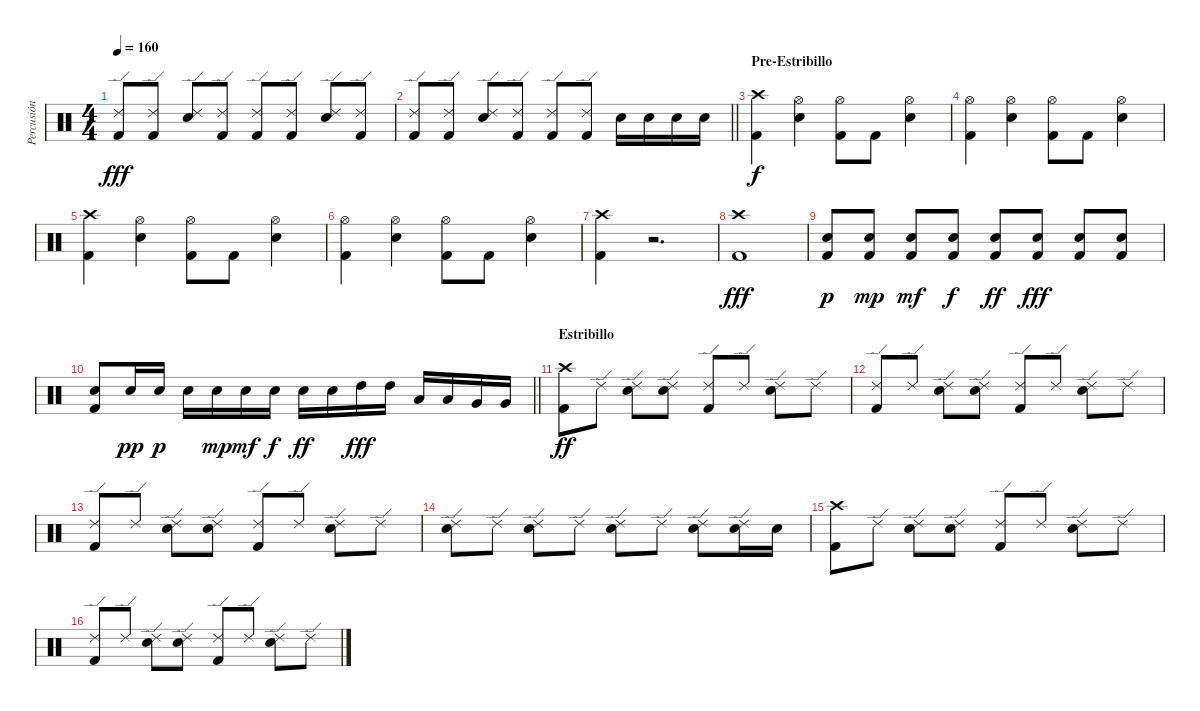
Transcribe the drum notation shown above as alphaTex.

\track ("Percusión" "Percusión") {instrument percussion}
\staff {score}
\articulation defaults
\ts (4 4)
\tempo 160
\clef neutral
\ks c
("Ride (edge) 2" "Kick (hit) 2").8{dy fff} ("Ride (edge) 2" "Kick (hit) 2").8 ("Ride (edge) 2" "Electric Snare (hit)").8 ("Ride (edge) 2" "Kick (hit) 2").8 ("Ride (edge) 2" "Kick (hit) 2").8 ("Ride (edge) 2" "Kick (hit) 2").8 ("Ride (edge) 2" "Electric Snare (hit)").8 ("Ride (edge) 2" "Kick (hit) 2").8 |
\barLineRight lightlight
("Ride (edge) 2" "Kick (hit) 2").8 ("Ride (edge) 2" "Kick (hit) 2").8 ("Ride (edge) 2" "Electric Snare (hit)").8 ("Ride (edge) 2" "Kick (hit) 2").8 ("Ride (edge) 2" "Kick (hit) 2").8 ("Ride (edge) 2" "Kick (hit) 2").8 "Electric Snare (hit)".16 "Electric Snare (hit)".16 "Electric Snare (hit)".16 "Electric Snare (hit)".16 |
\section ("" "Pre-Estribillo")
("Crash high (hit)" "Kick (hit) 2").4{dy f volume 16} ("Hi-Hat (open)" "Electric Snare (hit)").4 ("Hi-Hat (open)" "Kick (hit) 2").8 "Kick (hit) 2".8 ("Electric Snare (hit)" "Hi-Hat (open)").4 |
("Hi-Hat (open)" "Kick (hit) 2").4 ("Hi-Hat (open)" "Snare (hit) 2").4 ("Hi-Hat (open)" "Kick (hit) 2").8 "Kick (hit) 2".8 ("Hi-Hat (open)" "Electric Snare (hit)").4 |
("Crash high (hit)" "Kick (hit) 2").4 ("Hi-Hat (open)" "Electric Snare (hit)").4 ("Hi-Hat (open)" "Kick (hit) 2").8 "Kick (hit) 2".8 ("Electric Snare (hit)" "Hi-Hat (open)").4 |
("Hi-Hat (open)" "Kick (hit) 2").4 ("Hi-Hat (open)" "Snare (hit) 2").4 ("Hi-Hat (open)" "Kick (hit) 2").8 "Kick (hit) 2".8 ("Hi-Hat (open)" "Electric Snare (hit)").4 |
("Crash high (hit)" "Kick (hit) 2").4 r.2{d} |
("Crash high (hit)" "Kick (hit) 2").1{dy fff} |
("Electric Snare (hit)" "Kick (hit) 2").8{dy p} ("Electric Snare (hit)" "Kick (hit) 2").8{dy mp} ("Electric Snare (hit)" "Kick (hit) 2").8{dy mf} ("Electric Snare (hit)" "Kick (hit) 2").8{dy f} ("Electric Snare (hit)" "Kick (hit) 2").8{dy ff} ("Electric Snare (hit)" "Kick (hit) 2").8{dy fff} ("Electric Snare (hit)" "Kick (hit) 2").8 ("Electric Snare (hit)" "Kick (hit) 2").8 |
\barLineRight lightlight
("Electric Snare (hit)" "Kick (hit) 2").8 "Electric Snare (hit)".16{dy pp} "Electric Snare (hit)".16{dy p} "Electric Snare (hit)".16 "Electric Snare (hit)".16{dy mp} "Electric Snare (hit)".16{dy mf} "Electric Snare (hit)".16{dy f} "Electric Snare (hit)".16{dy ff} "Electric Snare (hit)".16 "High Tom (hit)".16{dy fff} "High Tom (hit)".16 "Low Tom (hit)".16 "Low Tom (hit)".16 "Very Low Tom (hit)".16 "Very Low Tom (hit)".16 |
\section ("" "Estribillo")
("Crash high (hit)" "Kick (hit) 2").8{dy ff} "Ride (edge) 2".8 ("Ride (edge) 2" "Electric Snare (hit)").8 ("Ride (edge) 2" "Electric Snare (hit)").8 ("Ride (edge) 2" "Kick (hit) 2").8 "Ride (edge) 2".8 ("Ride (edge) 2" "Electric Snare (hit)").8 "Ride (edge) 2".8 |
("Ride (edge) 2" "Kick (hit) 2").8 "Ride (edge) 2".8 ("Ride (edge) 2" "Electric Snare (hit)").8 ("Ride (edge) 2" "Electric Snare (hit)").8 ("Ride (edge) 2" "Kick (hit) 2").8 "Ride (edge) 2".8 ("Ride (edge) 2" "Electric Snare (hit)").8 "Ride (edge) 2".8 |
("Ride (edge) 2" "Kick (hit) 2").8 "Ride (edge) 2".8 ("Ride (edge) 2" "Electric Snare (hit)").8 ("Ride (edge) 2" "Electric Snare (hit)").8 ("Ride (edge) 2" "Kick (hit) 2").8 "Ride (edge) 2".8 ("Ride (edge) 2" "Electric Snare (hit)").8 "Ride (edge) 2".8 |
("Ride (edge) 2" "Electric Snare (hit)").8 "Ride (edge) 2".8 ("Ride (edge) 2" "Electric Snare (hit)").8 "Ride (edge) 2".8 ("Ride (edge) 2" "Electric Snare (hit)").8 "Ride (edge) 2".8 ("Ride (edge) 2" "Electric Snare (hit)").8 ("Ride (edge) 2" "Electric Snare (hit)").16 "Electric Snare (hit)".16 |
("Crash high (hit)" "Kick (hit) 2").8 "Ride (edge) 2".8 ("Ride (edge) 2" "Electric Snare (hit)").8 ("Ride (edge) 2" "Electric Snare (hit)").8 ("Ride (edge) 2" "Kick (hit) 2").8 "Ride (edge) 2".8 ("Ride (edge) 2" "Electric Snare (hit)").8 "Ride (edge) 2".8 |
("Ride (edge) 2" "Kick (hit) 2").8 "Ride (edge) 2".8 ("Ride (edge) 2" "Electric Snare (hit)").8 ("Ride (edge) 2" "Electric Snare (hit)").8 ("Ride (edge) 2" "Kick (hit) 2").8 "Ride (edge) 2".8 ("Ride (edge) 2" "Electric Snare (hit)").8 "Ride (edge) 2".8
